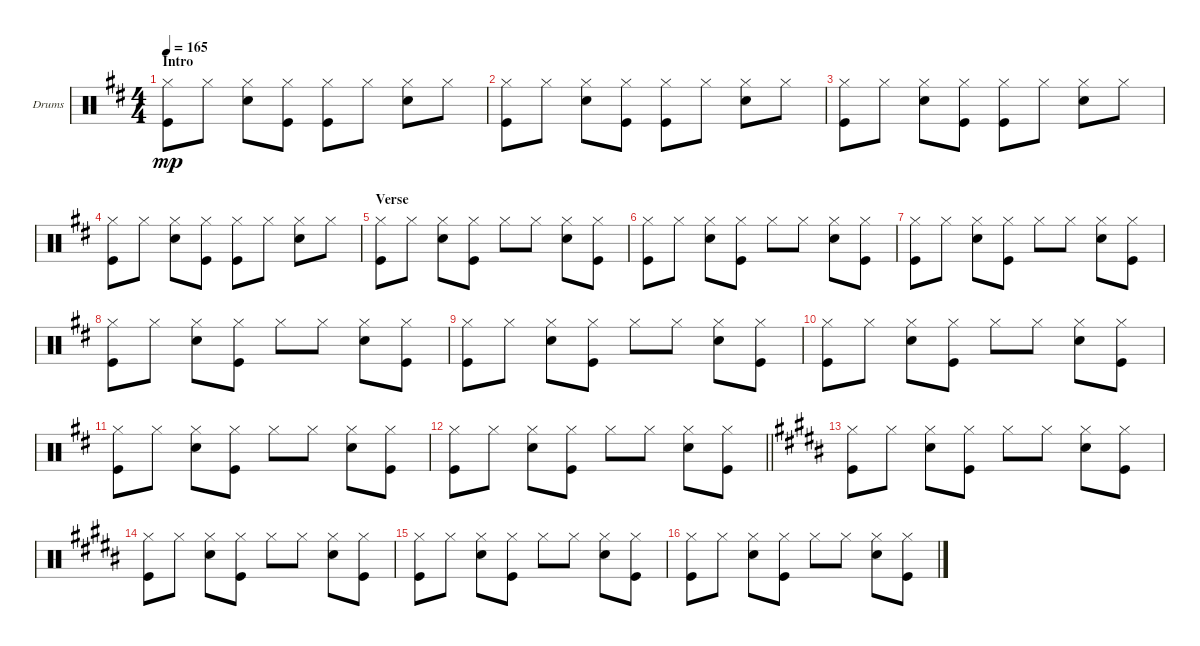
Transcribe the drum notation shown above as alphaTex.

\defaultSystemsLayout 4
\bracketExtendMode groupsimilarinstruments
\firstSystemTrackNameOrientation horizontal
\otherSystemsTrackNameOrientation horizontal
\track ("Drumkit" "Drums") {instrument percussion}
\staff {score}
\articulation defaults
\ts (4 4)
\section ("" "Intro")
\tempo 165
\clef neutral
\scale
0.514894
\ks d
("Hi-Hat (closed)" "Kick (hit)").8{dy mp} "Hi-Hat (closed)".8 ("Hi-Hat (closed)" "Snare (hit) 2").8 ("Hi-Hat (closed)" "Kick (hit)").8 ("Hi-Hat (closed)" "Kick (hit)").8 "Hi-Hat (closed)".8 ("Hi-Hat (closed)" "Snare (hit) 2").8 "Hi-Hat (closed)".8 |
\scale
0.242553 ("Hi-Hat (closed)" "Kick (hit)").8 "Hi-Hat (closed)".8 ("Hi-Hat (closed)" "Snare (hit) 2").8 ("Hi-Hat (closed)" "Kick (hit)").8 ("Hi-Hat (closed)" "Kick (hit)").8 "Hi-Hat (closed)".8 ("Hi-Hat (closed)" "Snare (hit) 2").8 "Hi-Hat (closed)".8 |
\scale
0.242553 ("Hi-Hat (closed)" "Kick (hit)").8 "Hi-Hat (closed)".8 ("Hi-Hat (closed)" "Snare (hit) 2").8 ("Hi-Hat (closed)" "Kick (hit)").8 ("Hi-Hat (closed)" "Kick (hit)").8 "Hi-Hat (closed)".8 ("Hi-Hat (closed)" "Snare (hit) 2").8 "Hi-Hat (closed)".8 |
\scale
0.333333 ("Hi-Hat (closed)" "Kick (hit)").8 "Hi-Hat (closed)".8 ("Hi-Hat (closed)" "Snare (hit) 2").8 ("Hi-Hat (closed)" "Kick (hit)").8 ("Hi-Hat (closed)" "Kick (hit)").8 "Hi-Hat (closed)".8 ("Hi-Hat (closed)" "Snare (hit) 2").8 "Hi-Hat (closed)".8 |
\section ("" "Verse")
\scale
0.333333 ("Hi-Hat (closed)" "Kick (hit)").8 "Hi-Hat (closed)".8 ("Hi-Hat (closed)" "Snare (hit) 2").8 ("Hi-Hat (closed)" "Kick (hit)").8 "Hi-Hat (closed)".8 "Hi-Hat (closed)".8 ("Hi-Hat (closed)" "Snare (hit) 2").8 ("Hi-Hat (closed)" "Kick (hit)").8 |
\scale
0.333333 ("Hi-Hat (closed)" "Kick (hit)").8 "Hi-Hat (closed)".8 ("Hi-Hat (closed)" "Snare (hit) 2").8 ("Hi-Hat (closed)" "Kick (hit)").8 "Hi-Hat (closed)".8 "Hi-Hat (closed)".8 ("Hi-Hat (closed)" "Snare (hit) 2").8 ("Hi-Hat (closed)" "Kick (hit)").8 |
\scale
0.333333 ("Hi-Hat (closed)" "Kick (hit)").8 "Hi-Hat (closed)".8 ("Hi-Hat (closed)" "Snare (hit) 2").8 ("Hi-Hat (closed)" "Kick (hit)").8 "Hi-Hat (closed)".8 "Hi-Hat (closed)".8 ("Hi-Hat (closed)" "Snare (hit) 2").8 ("Hi-Hat (closed)" "Kick (hit)").8 |
\scale
0.333333 ("Hi-Hat (closed)" "Kick (hit)").8 "Hi-Hat (closed)".8 ("Hi-Hat (closed)" "Snare (hit) 2").8 ("Hi-Hat (closed)" "Kick (hit)").8 "Hi-Hat (closed)".8 "Hi-Hat (closed)".8 ("Hi-Hat (closed)" "Snare (hit) 2").8 ("Hi-Hat (closed)" "Kick (hit)").8 |
\scale
0.333333 ("Hi-Hat (closed)" "Kick (hit)").8 "Hi-Hat (closed)".8 ("Hi-Hat (closed)" "Snare (hit) 2").8 ("Hi-Hat (closed)" "Kick (hit)").8 "Hi-Hat (closed)".8 "Hi-Hat (closed)".8 ("Hi-Hat (closed)" "Snare (hit) 2").8 ("Hi-Hat (closed)" "Kick (hit)").8 |
\scale
0.333333 ("Hi-Hat (closed)" "Kick (hit)").8 "Hi-Hat (closed)".8 ("Hi-Hat (closed)" "Snare (hit) 2").8 ("Hi-Hat (closed)" "Kick (hit)").8 "Hi-Hat (closed)".8 "Hi-Hat (closed)".8 ("Hi-Hat (closed)" "Snare (hit) 2").8 ("Hi-Hat (closed)" "Kick (hit)").8 |
\scale
0.333333 ("Hi-Hat (closed)" "Kick (hit)").8 "Hi-Hat (closed)".8 ("Hi-Hat (closed)" "Snare (hit) 2").8 ("Hi-Hat (closed)" "Kick (hit)").8 "Hi-Hat (closed)".8 "Hi-Hat (closed)".8 ("Hi-Hat (closed)" "Snare (hit) 2").8 ("Hi-Hat (closed)" "Kick (hit)").8 |
\scale
0.333333
\barLineRight lightlight
("Hi-Hat (closed)" "Kick (hit)").8 "Hi-Hat (closed)".8 ("Hi-Hat (closed)" "Snare (hit) 2").8 ("Hi-Hat (closed)" "Kick (hit)").8 "Hi-Hat (closed)".8 "Hi-Hat (closed)".8 ("Hi-Hat (closed)" "Snare (hit) 2").8 ("Hi-Hat (closed)" "Kick (hit)").8 |
\scale
0.502183
\ks b
("Hi-Hat (closed)" "Kick (hit)").8 "Hi-Hat (closed)".8 ("Hi-Hat (closed)" "Snare (hit) 2").8 ("Hi-Hat (closed)" "Kick (hit)").8 "Hi-Hat (closed)".8 "Hi-Hat (closed)".8 ("Hi-Hat (closed)" "Snare (hit) 2").8 ("Hi-Hat (closed)" "Kick (hit)").8 |
\scale
0.248908 ("Hi-Hat (closed)" "Kick (hit)").8 "Hi-Hat (closed)".8 ("Hi-Hat (closed)" "Snare (hit) 2").8 ("Hi-Hat (closed)" "Kick (hit)").8 "Hi-Hat (closed)".8 "Hi-Hat (closed)".8 ("Hi-Hat (closed)" "Snare (hit) 2").8 ("Hi-Hat (closed)" "Kick (hit)").8 |
\scale
0.248908 ("Hi-Hat (closed)" "Kick (hit)").8 "Hi-Hat (closed)".8 ("Hi-Hat (closed)" "Snare (hit) 2").8 ("Hi-Hat (closed)" "Kick (hit)").8 "Hi-Hat (closed)".8 "Hi-Hat (closed)".8 ("Hi-Hat (closed)" "Snare (hit) 2").8 ("Hi-Hat (closed)" "Kick (hit)").8 |
\scale
0.333333 ("Hi-Hat (closed)" "Kick (hit)").8 "Hi-Hat (closed)".8 ("Hi-Hat (closed)" "Snare (hit) 2").8 ("Hi-Hat (closed)" "Kick (hit)").8 "Hi-Hat (closed)".8 "Hi-Hat (closed)".8 ("Hi-Hat (closed)" "Snare (hit) 2").8 ("Hi-Hat (closed)" "Kick (hit)").8
